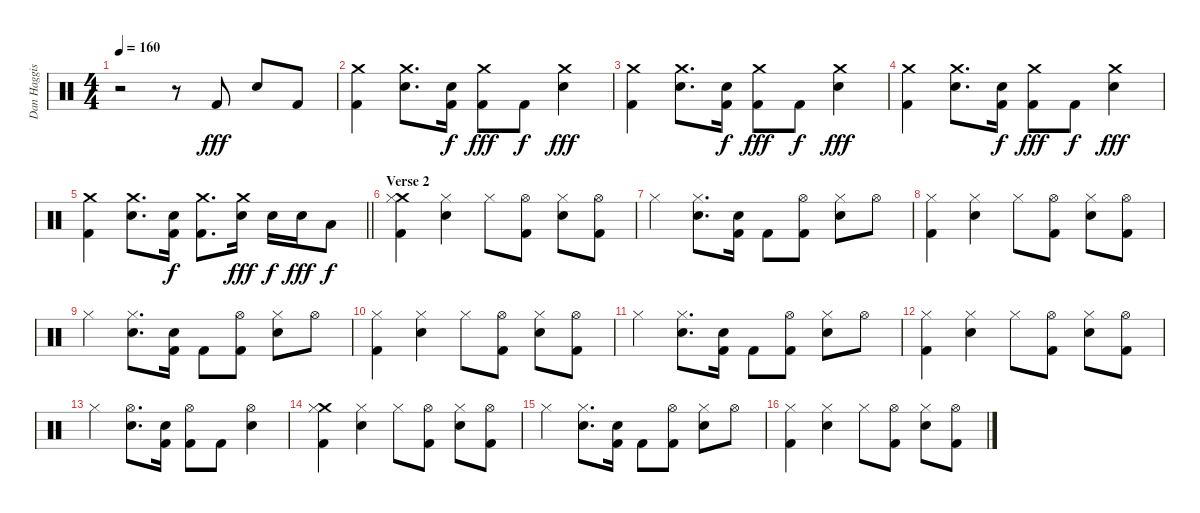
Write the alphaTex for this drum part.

\track ("Dan Haggis" "Dan Haggis") {instrument percussion}
\staff {score}
\articulation defaults
\ts (4 4)
\tempo 160
\clef neutral
\ks c
r.2{dy f} r.8 "Kick (hit) 2".8{dy fff} "Electric Snare (hit)".8 "Kick (hit) 2".8 |
("Crash medium (hit)" "Kick (hit) 2").4 ("Crash medium (hit)" "Electric Snare (hit)").8{d} ("Kick (hit) 2" "Electric Snare (hit)").16{dy f} ("Crash medium (hit)" "Kick (hit) 2").8{dy fff} "Kick (hit) 2".8{dy f} ("Crash medium (hit)" "Electric Snare (hit)").4{dy fff} |
("Crash medium (hit)" "Kick (hit) 2").4 ("Crash medium (hit)" "Electric Snare (hit)").8{d} ("Kick (hit) 2" "Electric Snare (hit)").16{dy f} ("Crash medium (hit)" "Kick (hit) 2").8{dy fff} "Kick (hit) 2".8{dy f} ("Crash medium (hit)" "Electric Snare (hit)").4{dy fff} |
("Crash medium (hit)" "Kick (hit) 2").4 ("Crash medium (hit)" "Electric Snare (hit)").8{d} ("Kick (hit) 2" "Electric Snare (hit)").16{dy f} ("Crash medium (hit)" "Kick (hit) 2").8{dy fff} "Kick (hit) 2".8{dy f} ("Crash medium (hit)" "Electric Snare (hit)").4{dy fff} |
\barLineRight lightlight
("Crash medium (hit)" "Kick (hit) 2").4 ("Crash medium (hit)" "Electric Snare (hit)").8{d} ("Kick (hit) 2" "Electric Snare (hit)").16{dy f} ("Crash medium (hit)" "Kick (hit) 2").8{d} ("Crash medium (hit)" "Electric Snare (hit)").16{dy fff} "Electric Snare (hit)".16{dy f} "Electric Snare (hit)".16{dy fff} "Low Tom (hit)".8{dy f} |
\section ("" "Verse 2")
("Crash medium (hit)" "Hi-Hat (closed)" "Kick (hit) 2").4 ("Hi-Hat (closed)" "Electric Snare (hit)").4 "Hi-Hat (closed)".8 ("Hi-Hat (open)" "Kick (hit) 2").8 ("Hi-Hat (closed)" "Electric Snare (hit)").8 ("Hi-Hat (open)" "Kick (hit) 2").8 |
"Hi-Hat (closed)".4 ("Hi-Hat (closed)" "Electric Snare (hit)").8{d} ("Kick (hit) 2" "Electric Snare (hit)").16 "Kick (hit) 2".8 ("Hi-Hat (open)" "Kick (hit) 2").8 ("Hi-Hat (closed)" "Electric Snare (hit)").8 "Hi-Hat (open)".8 |
("Hi-Hat (closed)" "Kick (hit) 2").4 ("Hi-Hat (closed)" "Electric Snare (hit)").4 "Hi-Hat (closed)".8 ("Hi-Hat (open)" "Kick (hit) 2").8 ("Hi-Hat (closed)" "Electric Snare (hit)").8 ("Hi-Hat (open)" "Kick (hit) 2").8 |
"Hi-Hat (closed)".4 ("Hi-Hat (closed)" "Electric Snare (hit)").8{d} ("Kick (hit) 2" "Electric Snare (hit)").16 "Kick (hit) 2".8 ("Hi-Hat (open)" "Kick (hit) 2").8 ("Hi-Hat (closed)" "Electric Snare (hit)").8 "Hi-Hat (open)".8 |
("Hi-Hat (closed)" "Kick (hit) 2").4 ("Hi-Hat (closed)" "Electric Snare (hit)").4 "Hi-Hat (closed)".8 ("Hi-Hat (open)" "Kick (hit) 2").8 ("Hi-Hat (closed)" "Electric Snare (hit)").8 ("Hi-Hat (open)" "Kick (hit) 2").8 |
"Hi-Hat (closed)".4 ("Hi-Hat (closed)" "Electric Snare (hit)").8{d} ("Kick (hit) 2" "Electric Snare (hit)").16 "Kick (hit) 2".8 ("Hi-Hat (open)" "Kick (hit) 2").8 ("Hi-Hat (closed)" "Electric Snare (hit)").8 "Hi-Hat (open)".8 |
("Hi-Hat (closed)" "Kick (hit) 2").4 ("Hi-Hat (closed)" "Electric Snare (hit)").4 "Hi-Hat (closed)".8 ("Hi-Hat (open)" "Kick (hit) 2").8 ("Hi-Hat (closed)" "Electric Snare (hit)").8 ("Hi-Hat (open)" "Kick (hit) 2").8 |
"Hi-Hat (closed)".4 ("Hi-Hat (open)" "Electric Snare (hit)").8{d} ("Kick (hit) 2" "Electric Snare (hit)").16 ("Hi-Hat (open)" "Kick (hit) 2").8 "Kick (hit) 2".8 ("Hi-Hat (open)" "Electric Snare (hit)").4 |
("Crash medium (hit)" "Hi-Hat (closed)" "Kick (hit) 2").4 ("Hi-Hat (closed)" "Electric Snare (hit)").4 "Hi-Hat (closed)".8 ("Hi-Hat (open)" "Kick (hit) 2").8 ("Hi-Hat (closed)" "Electric Snare (hit)").8 ("Hi-Hat (open)" "Kick (hit) 2").8 |
"Hi-Hat (closed)".4 ("Hi-Hat (closed)" "Electric Snare (hit)").8{d} ("Kick (hit) 2" "Electric Snare (hit)").16 "Kick (hit) 2".8 ("Hi-Hat (open)" "Kick (hit) 2").8 ("Hi-Hat (closed)" "Electric Snare (hit)").8 "Hi-Hat (open)".8 |
("Hi-Hat (closed)" "Kick (hit) 2").4 ("Hi-Hat (closed)" "Electric Snare (hit)").4 "Hi-Hat (closed)".8 ("Hi-Hat (open)" "Kick (hit) 2").8 ("Hi-Hat (closed)" "Electric Snare (hit)").8 ("Hi-Hat (open)" "Kick (hit) 2").8
